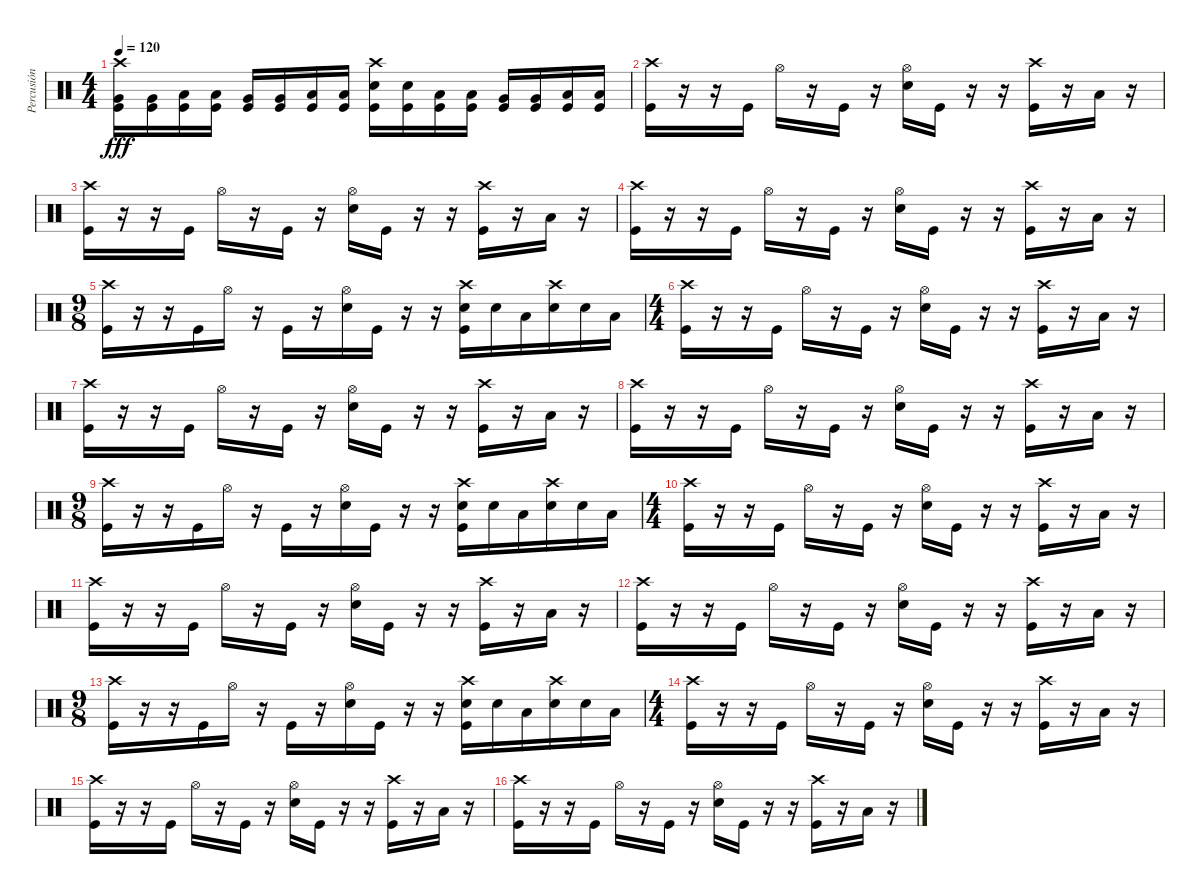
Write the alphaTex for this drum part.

\track ("Percusión" "Percusión") {instrument percussion}
\staff {score}
\articulation defaults
\ts (4 4)
\tempo 120
\clef neutral
\ks c
("Crash high (hit)" "Very Low Tom (hit)" "Kick (hit)").16{dy fff} ("Very Low Tom (hit)" "Kick (hit)").16 ("Low Floor Tom (hit)" "Kick (hit)").16 ("Low Floor Tom (hit)" "Kick (hit)").16 ("Very Low Tom (hit)" "Kick (hit)").16 ("Very Low Tom (hit)" "Kick (hit)").16 ("Low Floor Tom (hit)" "Kick (hit)").16 ("Low Floor Tom (hit)" "Kick (hit)").16 ("Crash high (hit)" "Snare (hit) 2" "Kick (hit)").16 ("Snare (hit) 2" "Kick (hit)").16 ("Low Floor Tom (hit)" "Kick (hit)").16 ("Low Floor Tom (hit)" "Kick (hit)").16 ("Very Low Tom (hit)" "Kick (hit)").16 ("Very Low Tom (hit)" "Kick (hit)").16 ("Low Floor Tom (hit)" "Kick (hit)").16 ("Low Floor Tom (hit)" "Kick (hit)").16 |
("Kick (hit)" "Crash high (hit)").16 r.16 r.16 "Kick (hit)".16 "Hi-Hat (open)".16 r.16 "Kick (hit)".16 r.16 ("Hi-Hat (open)" "Snare (hit) 2").16 "Kick (hit)".16 r.16 r.16 ("Crash high (hit)" "Kick (hit)").16 r.16 "Low Floor Tom (hit)".16 r.16 |
("Kick (hit)" "Crash high (hit)").16 r.16 r.16 "Kick (hit)".16 "Hi-Hat (open)".16 r.16 "Kick (hit)".16 r.16 ("Hi-Hat (open)" "Snare (hit) 2").16 "Kick (hit)".16 r.16 r.16 ("Crash high (hit)" "Kick (hit)").16 r.16 "Low Floor Tom (hit)".16 r.16 |
("Kick (hit)" "Crash high (hit)").16 r.16 r.16 "Kick (hit)".16 "Hi-Hat (open)".16 r.16 "Kick (hit)".16 r.16 ("Hi-Hat (open)" "Snare (hit) 2").16 "Kick (hit)".16 r.16 r.16 ("Crash high (hit)" "Kick (hit)").16 r.16 "Low Floor Tom (hit)".16 r.16 |
\ts (9 8)
("Kick (hit)" "Crash high (hit)").16 r.16 r.16 "Kick (hit)".16 "Hi-Hat (open)".16 r.16 "Kick (hit)".16 r.16 ("Hi-Hat (open)" "Snare (hit) 2").16 "Kick (hit)".16 r.16 r.16 ("Crash high (hit)" "Snare (hit) 2" "Kick (hit)").16 "Snare (hit) 2".16 "Low Floor Tom (hit)".16 ("Crash high (hit)" "Snare (hit) 2").16 "Snare (hit) 2".16 "Low Floor Tom (hit)".16 |
\ts (4 4)
("Kick (hit)" "Crash high (hit)").16 r.16 r.16 "Kick (hit)".16 "Hi-Hat (open)".16 r.16 "Kick (hit)".16 r.16 ("Hi-Hat (open)" "Snare (hit) 2").16 "Kick (hit)".16 r.16 r.16 ("Crash high (hit)" "Kick (hit)").16 r.16 "Low Floor Tom (hit)".16 r.16 |
("Kick (hit)" "Crash high (hit)").16 r.16 r.16 "Kick (hit)".16 "Hi-Hat (open)".16 r.16 "Kick (hit)".16 r.16 ("Hi-Hat (open)" "Snare (hit) 2").16 "Kick (hit)".16 r.16 r.16 ("Crash high (hit)" "Kick (hit)").16 r.16 "Low Floor Tom (hit)".16 r.16 |
("Kick (hit)" "Crash high (hit)").16 r.16 r.16 "Kick (hit)".16 "Hi-Hat (open)".16 r.16 "Kick (hit)".16 r.16 ("Hi-Hat (open)" "Snare (hit) 2").16 "Kick (hit)".16 r.16 r.16 ("Crash high (hit)" "Kick (hit)").16 r.16 "Low Floor Tom (hit)".16 r.16 |
\ts (9 8)
("Kick (hit)" "Crash high (hit)").16 r.16 r.16 "Kick (hit)".16 "Hi-Hat (open)".16 r.16 "Kick (hit)".16 r.16 ("Hi-Hat (open)" "Snare (hit) 2").16 "Kick (hit)".16 r.16 r.16 ("Crash high (hit)" "Snare (hit) 2" "Kick (hit)").16 "Snare (hit) 2".16 "Low Floor Tom (hit)".16 ("Crash high (hit)" "Snare (hit) 2").16 "Snare (hit) 2".16 "Low Floor Tom (hit)".16 |
\ts (4 4)
("Kick (hit)" "Crash high (hit)").16 r.16 r.16 "Kick (hit)".16 "Hi-Hat (open)".16 r.16 "Kick (hit)".16 r.16 ("Hi-Hat (open)" "Snare (hit) 2").16 "Kick (hit)".16 r.16 r.16 ("Crash high (hit)" "Kick (hit)").16 r.16 "Low Floor Tom (hit)".16 r.16 |
("Kick (hit)" "Crash high (hit)").16 r.16 r.16 "Kick (hit)".16 "Hi-Hat (open)".16 r.16 "Kick (hit)".16 r.16 ("Hi-Hat (open)" "Snare (hit) 2").16 "Kick (hit)".16 r.16 r.16 ("Crash high (hit)" "Kick (hit)").16 r.16 "Low Floor Tom (hit)".16 r.16 |
("Kick (hit)" "Crash high (hit)").16 r.16 r.16 "Kick (hit)".16 "Hi-Hat (open)".16 r.16 "Kick (hit)".16 r.16 ("Hi-Hat (open)" "Snare (hit) 2").16 "Kick (hit)".16 r.16 r.16 ("Crash high (hit)" "Kick (hit)").16 r.16 "Low Floor Tom (hit)".16 r.16 |
\ts (9 8)
("Kick (hit)" "Crash high (hit)").16 r.16 r.16 "Kick (hit)".16 "Hi-Hat (open)".16 r.16 "Kick (hit)".16 r.16 ("Hi-Hat (open)" "Snare (hit) 2").16 "Kick (hit)".16 r.16 r.16 ("Crash high (hit)" "Snare (hit) 2" "Kick (hit)").16 "Snare (hit) 2".16 "Low Floor Tom (hit)".16 ("Crash high (hit)" "Snare (hit) 2").16 "Snare (hit) 2".16 "Low Floor Tom (hit)".16 |
\ts (4 4)
("Kick (hit)" "Crash high (hit)").16 r.16 r.16 "Kick (hit)".16 "Hi-Hat (open)".16 r.16 "Kick (hit)".16 r.16 ("Hi-Hat (open)" "Snare (hit) 2").16 "Kick (hit)".16 r.16 r.16 ("Crash high (hit)" "Kick (hit)").16 r.16 "Low Floor Tom (hit)".16 r.16 |
("Kick (hit)" "Crash high (hit)").16 r.16 r.16 "Kick (hit)".16 "Hi-Hat (open)".16 r.16 "Kick (hit)".16 r.16 ("Hi-Hat (open)" "Snare (hit) 2").16 "Kick (hit)".16 r.16 r.16 ("Crash high (hit)" "Kick (hit)").16 r.16 "Low Floor Tom (hit)".16 r.16 |
("Kick (hit)" "Crash high (hit)").16 r.16 r.16 "Kick (hit)".16 "Hi-Hat (open)".16 r.16 "Kick (hit)".16 r.16 ("Hi-Hat (open)" "Snare (hit) 2").16 "Kick (hit)".16 r.16 r.16 ("Crash high (hit)" "Kick (hit)").16 r.16 "Low Floor Tom (hit)".16 r.16
